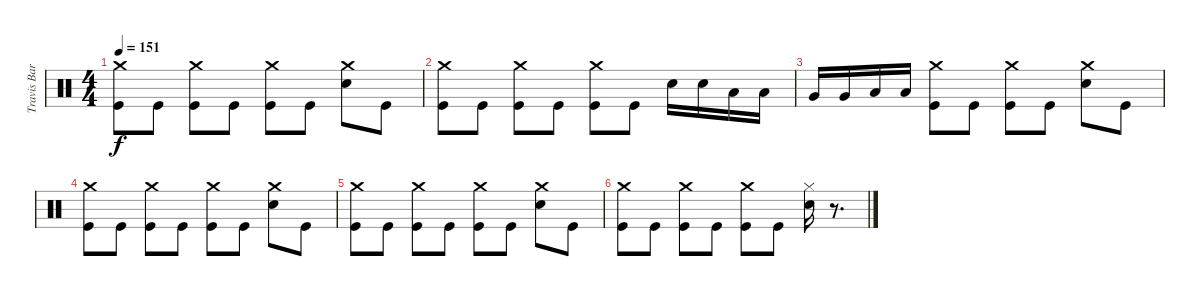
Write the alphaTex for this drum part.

\track ("Travis Barker (Drums)" "Travis Bar") {instrument percussion}
\staff {score}
\articulation defaults
\ts (4 4)
\tempo 151
\clef neutral
\ks c
("Kick (hit)" "Crash medium (hit)").8{dy f} "Kick (hit)".8 ("Kick (hit)" "Crash medium (hit)").8 "Kick (hit)".8 ("Kick (hit)" "Crash medium (hit)").8 "Kick (hit)".8 ("Electric Snare (hit)" "Crash medium (hit)").8 "Kick (hit)".8 |
("Kick (hit)" "Crash medium (hit)").8 "Kick (hit)".8 ("Kick (hit)" "Crash medium (hit)").8 "Kick (hit)".8 ("Kick (hit)" "Crash medium (hit)").8 "Kick (hit)".8 "Electric Snare (hit)".16 "Electric Snare (hit)".16 "Low Tom (hit)".16 "Low Tom (hit)".16 |
"Very Low Tom (hit)".16 "Very Low Tom (hit)".16 "Low Floor Tom (hit)".16 "Low Floor Tom (hit)".16 ("Kick (hit)" "Crash medium (hit)").8 "Kick (hit)".8 ("Kick (hit)" "Crash medium (hit)").8 "Kick (hit)".8 ("Electric Snare (hit)" "Crash medium (hit)").8 "Kick (hit)".8 |
("Kick (hit)" "Crash medium (hit)").8 "Kick (hit)".8 ("Kick (hit)" "Crash medium (hit)").8 "Kick (hit)".8 ("Kick (hit)" "Crash medium (hit)").8 "Kick (hit)".8 ("Electric Snare (hit)" "Crash medium (hit)").8 "Kick (hit)".8 |
("Kick (hit)" "Crash medium (hit)").8 "Kick (hit)".8 ("Kick (hit)" "Crash medium (hit)").8 "Kick (hit)".8 ("Kick (hit)" "Crash medium (hit)").8 "Kick (hit)".8 ("Electric Snare (hit)" "Crash medium (hit)").8 "Kick (hit)".8 |
("Kick (hit)" "Crash medium (hit)").8 "Kick (hit)".8 ("Kick (hit)" "Crash medium (hit)").8 "Kick (hit)".8 ("Kick (hit)" "Crash medium (hit)").8 "Kick (hit)".8 ("Electric Snare (hit)" "Hi-Hat (closed)").16 r.8{d}
